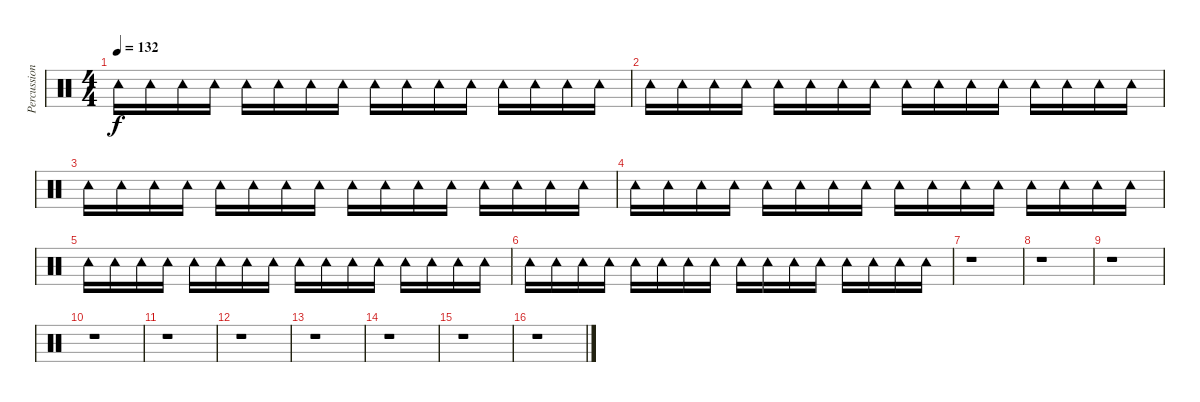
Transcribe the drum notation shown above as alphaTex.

\track ("Percussion" "Percussion") {instrument percussion}
\staff {score}
\articulation defaults
\ts (4 4)
\tempo 132
\clef neutral
\ks c "Tambourine (hit)".16{dy f} "Tambourine (hit)".16 "Tambourine (hit)".16 "Tambourine (hit)".16 "Tambourine (hit)".16 "Tambourine (hit)".16 "Tambourine (hit)".16 "Tambourine (hit)".16 "Tambourine (hit)".16 "Tambourine (hit)".16 "Tambourine (hit)".16 "Tambourine (hit)".16 "Tambourine (hit)".16 "Tambourine (hit)".16 "Tambourine (hit)".16 "Tambourine (hit)".16
|
"Tambourine (hit)".16 "Tambourine (hit)".16 "Tambourine (hit)".16 "Tambourine (hit)".16 "Tambourine (hit)".16 "Tambourine (hit)".16 "Tambourine (hit)".16 "Tambourine (hit)".16 "Tambourine (hit)".16 "Tambourine (hit)".16 "Tambourine (hit)".16 "Tambourine (hit)".16 "Tambourine (hit)".16 "Tambourine (hit)".16 "Tambourine (hit)".16 "Tambourine (hit)".16 |
"Tambourine (hit)".16 "Tambourine (hit)".16 "Tambourine (hit)".16 "Tambourine (hit)".16 "Tambourine (hit)".16 "Tambourine (hit)".16 "Tambourine (hit)".16 "Tambourine (hit)".16 "Tambourine (hit)".16 "Tambourine (hit)".16 "Tambourine (hit)".16 "Tambourine (hit)".16 "Tambourine (hit)".16 "Tambourine (hit)".16 "Tambourine (hit)".16 "Tambourine (hit)".16 |
"Tambourine (hit)".16 "Tambourine (hit)".16 "Tambourine (hit)".16 "Tambourine (hit)".16 "Tambourine (hit)".16 "Tambourine (hit)".16 "Tambourine (hit)".16 "Tambourine (hit)".16 "Tambourine (hit)".16 "Tambourine (hit)".16 "Tambourine (hit)".16 "Tambourine (hit)".16 "Tambourine (hit)".16 "Tambourine (hit)".16 "Tambourine (hit)".16 "Tambourine (hit)".16 |
"Tambourine (hit)".16 "Tambourine (hit)".16 "Tambourine (hit)".16 "Tambourine (hit)".16 "Tambourine (hit)".16 "Tambourine (hit)".16 "Tambourine (hit)".16 "Tambourine (hit)".16 "Tambourine (hit)".16 "Tambourine (hit)".16 "Tambourine (hit)".16 "Tambourine (hit)".16 "Tambourine (hit)".16 "Tambourine (hit)".16 "Tambourine (hit)".16 "Tambourine (hit)".16 |
"Tambourine (hit)".16 "Tambourine (hit)".16 "Tambourine (hit)".16 "Tambourine (hit)".16 "Tambourine (hit)".16 "Tambourine (hit)".16 "Tambourine (hit)".16 "Tambourine (hit)".16 "Tambourine (hit)".16 "Tambourine (hit)".16 "Tambourine (hit)".16 "Tambourine (hit)".16 "Tambourine (hit)".16 "Tambourine (hit)".16 "Tambourine (hit)".16 "Tambourine (hit)".16 |
r.1 |
r.1 |
r.1 |
r.1 |
r.1 |
r.1 |
r.1 |
r.1 |
r.1 |
r.1
